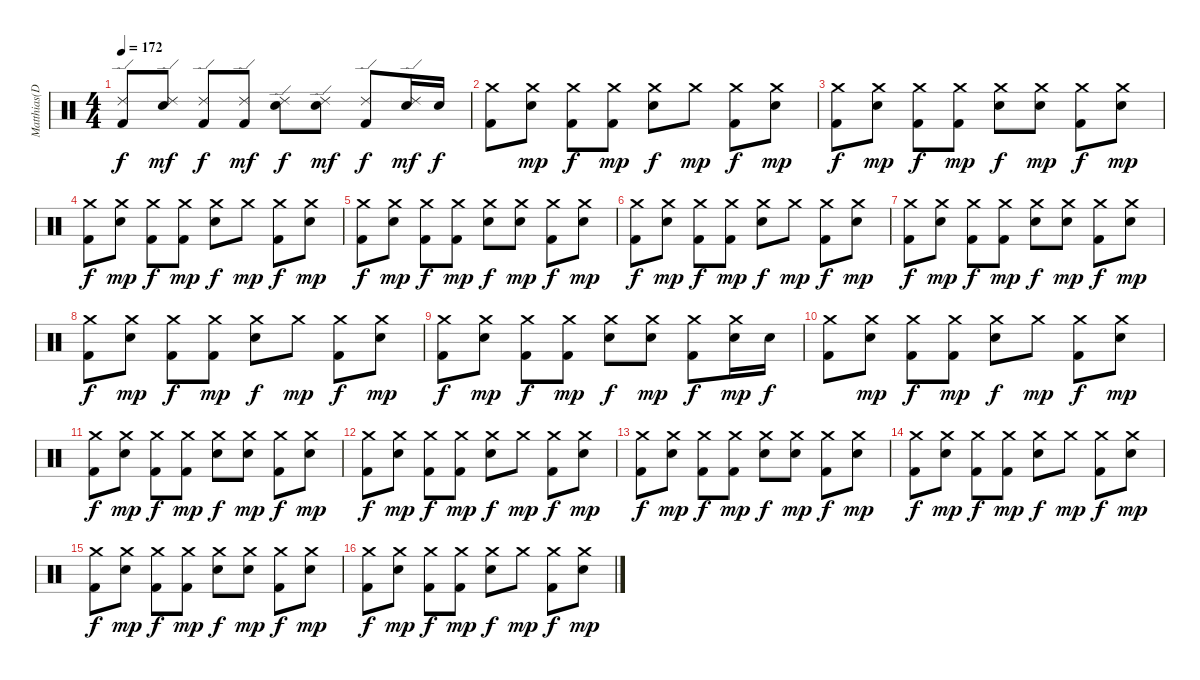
\track ("Matthias(Drums)" "Matthias(D") {instrument percussion}
\staff {score}
\articulation defaults
\ts (4 4)
\tempo 172
\clef neutral
\ks c
("Ride (edge) 2" "Kick (hit) 2").8{dy f} ("Ride (edge) 2" "Snare (hit) 2").8{dy mf} ("Ride (edge) 2" "Kick (hit) 2").8{dy f} ("Ride (edge) 2" "Kick (hit) 2").8{dy mf} ("Ride (edge) 2" "Snare (hit) 2").8{dy f} ("Ride (edge) 2" "Snare (hit) 2").8{dy mf} ("Ride (edge) 2" "Kick (hit) 2").8{dy f} ("Ride (edge) 2" "Snare (hit) 2").16{dy mf} "Snare (hit) 2".16{dy f} |
("Crash medium (hit)" "Kick (hit) 2").8 ("Crash medium (hit)" "Snare (hit) 2").8{dy mp} ("Crash medium (hit)" "Kick (hit) 2").8{dy f} ("Crash medium (hit)" "Kick (hit) 2").8{dy mp} ("Crash medium (hit)" "Snare (hit) 2").8{dy f} "Crash medium (hit)".8{dy mp} ("Crash medium (hit)" "Kick (hit) 2").8{dy f} ("Crash medium (hit)" "Snare (hit) 2").8{dy mp} |
("Crash medium (hit)" "Kick (hit) 2").8{dy f} ("Crash medium (hit)" "Snare (hit) 2").8{dy mp} ("Crash medium (hit)" "Kick (hit) 2").8{dy f} ("Crash medium (hit)" "Kick (hit) 2").8{dy mp} ("Crash medium (hit)" "Snare (hit) 2").8{dy f} ("Crash medium (hit)" "Snare (hit) 2").8{dy mp} ("Crash medium (hit)" "Kick (hit) 2").8{dy f} ("Crash medium (hit)" "Snare (hit) 2").8{dy mp} |
("Crash medium (hit)" "Kick (hit) 2").8{dy f} ("Crash medium (hit)" "Snare (hit) 2").8{dy mp} ("Crash medium (hit)" "Kick (hit) 2").8{dy f} ("Crash medium (hit)" "Kick (hit) 2").8{dy mp} ("Crash medium (hit)" "Snare (hit) 2").8{dy f} "Crash medium (hit)".8{dy mp} ("Crash medium (hit)" "Kick (hit) 2").8{dy f} ("Crash medium (hit)" "Snare (hit) 2").8{dy mp} |
("Crash medium (hit)" "Kick (hit) 2").8{dy f} ("Crash medium (hit)" "Snare (hit) 2").8{dy mp} ("Crash medium (hit)" "Kick (hit) 2").8{dy f} ("Crash medium (hit)" "Kick (hit) 2").8{dy mp} ("Crash medium (hit)" "Snare (hit) 2").8{dy f} ("Crash medium (hit)" "Snare (hit) 2").8{dy mp} ("Crash medium (hit)" "Kick (hit) 2").8{dy f} ("Crash medium (hit)" "Snare (hit) 2").8{dy mp} |
("Crash medium (hit)" "Kick (hit) 2").8{dy f} ("Crash medium (hit)" "Snare (hit) 2").8{dy mp} ("Crash medium (hit)" "Kick (hit) 2").8{dy f} ("Crash medium (hit)" "Kick (hit) 2").8{dy mp} ("Crash medium (hit)" "Snare (hit) 2").8{dy f} "Crash medium (hit)".8{dy mp} ("Crash medium (hit)" "Kick (hit) 2").8{dy f} ("Crash medium (hit)" "Snare (hit) 2").8{dy mp} |
("Crash medium (hit)" "Kick (hit) 2").8{dy f} ("Crash medium (hit)" "Snare (hit) 2").8{dy mp} ("Crash medium (hit)" "Kick (hit) 2").8{dy f} ("Crash medium (hit)" "Kick (hit) 2").8{dy mp} ("Crash medium (hit)" "Snare (hit) 2").8{dy f} ("Crash medium (hit)" "Snare (hit) 2").8{dy mp} ("Crash medium (hit)" "Kick (hit) 2").8{dy f} ("Crash medium (hit)" "Snare (hit) 2").8{dy mp} |
("Crash medium (hit)" "Kick (hit) 2").8{dy f} ("Crash medium (hit)" "Snare (hit) 2").8{dy mp} ("Crash medium (hit)" "Kick (hit) 2").8{dy f} ("Crash medium (hit)" "Kick (hit) 2").8{dy mp} ("Crash medium (hit)" "Snare (hit) 2").8{dy f} "Crash medium (hit)".8{dy mp} ("Crash medium (hit)" "Kick (hit) 2").8{dy f} ("Crash medium (hit)" "Snare (hit) 2").8{dy mp} |
("Crash medium (hit)" "Kick (hit) 2").8{dy f} ("Crash medium (hit)" "Snare (hit) 2").8{dy mp} ("Crash medium (hit)" "Kick (hit) 2").8{dy f} ("Crash medium (hit)" "Kick (hit) 2").8{dy mp} ("Crash medium (hit)" "Snare (hit) 2").8{dy f} ("Crash medium (hit)" "Snare (hit) 2").8{dy mp} ("Crash medium (hit)" "Kick (hit) 2").8{dy f} ("Crash medium (hit)" "Snare (hit) 2").16{dy mp} "Snare (hit) 2".16{dy f} |
("Crash medium (hit)" "Kick (hit) 2").8 ("Crash medium (hit)" "Snare (hit) 2").8{dy mp} ("Crash medium (hit)" "Kick (hit) 2").8{dy f} ("Crash medium (hit)" "Kick (hit) 2").8{dy mp} ("Crash medium (hit)" "Snare (hit) 2").8{dy f} "Crash medium (hit)".8{dy mp} ("Crash medium (hit)" "Kick (hit) 2").8{dy f} ("Crash medium (hit)" "Snare (hit) 2").8{dy mp} |
("Crash medium (hit)" "Kick (hit) 2").8{dy f} ("Crash medium (hit)" "Snare (hit) 2").8{dy mp} ("Crash medium (hit)" "Kick (hit) 2").8{dy f} ("Crash medium (hit)" "Kick (hit) 2").8{dy mp} ("Crash medium (hit)" "Snare (hit) 2").8{dy f} ("Crash medium (hit)" "Snare (hit) 2").8{dy mp} ("Crash medium (hit)" "Kick (hit) 2").8{dy f} ("Crash medium (hit)" "Snare (hit) 2").8{dy mp} |
("Crash medium (hit)" "Kick (hit) 2").8{dy f} ("Crash medium (hit)" "Snare (hit) 2").8{dy mp} ("Crash medium (hit)" "Kick (hit) 2").8{dy f} ("Crash medium (hit)" "Kick (hit) 2").8{dy mp} ("Crash medium (hit)" "Snare (hit) 2").8{dy f} "Crash medium (hit)".8{dy mp} ("Crash medium (hit)" "Kick (hit) 2").8{dy f} ("Crash medium (hit)" "Snare (hit) 2").8{dy mp} |
("Crash medium (hit)" "Kick (hit) 2").8{dy f} ("Crash medium (hit)" "Snare (hit) 2").8{dy mp} ("Crash medium (hit)" "Kick (hit) 2").8{dy f} ("Crash medium (hit)" "Kick (hit) 2").8{dy mp} ("Crash medium (hit)" "Snare (hit) 2").8{dy f} ("Crash medium (hit)" "Snare (hit) 2").8{dy mp} ("Crash medium (hit)" "Kick (hit) 2").8{dy f} ("Crash medium (hit)" "Snare (hit) 2").8{dy mp} |
("Crash medium (hit)" "Kick (hit) 2").8{dy f} ("Crash medium (hit)" "Snare (hit) 2").8{dy mp} ("Crash medium (hit)" "Kick (hit) 2").8{dy f} ("Crash medium (hit)" "Kick (hit) 2").8{dy mp} ("Crash medium (hit)" "Snare (hit) 2").8{dy f} "Crash medium (hit)".8{dy mp} ("Crash medium (hit)" "Kick (hit) 2").8{dy f} ("Crash medium (hit)" "Snare (hit) 2").8{dy mp} |
("Crash medium (hit)" "Kick (hit) 2").8{dy f} ("Crash medium (hit)" "Snare (hit) 2").8{dy mp} ("Crash medium (hit)" "Kick (hit) 2").8{dy f} ("Crash medium (hit)" "Kick (hit) 2").8{dy mp} ("Crash medium (hit)" "Snare (hit) 2").8{dy f} ("Crash medium (hit)" "Snare (hit) 2").8{dy mp} ("Crash medium (hit)" "Kick (hit) 2").8{dy f} ("Crash medium (hit)" "Snare (hit) 2").8{dy mp} |
("Crash medium (hit)" "Kick (hit) 2").8{dy f} ("Crash medium (hit)" "Snare (hit) 2").8{dy mp} ("Crash medium (hit)" "Kick (hit) 2").8{dy f} ("Crash medium (hit)" "Kick (hit) 2").8{dy mp} ("Crash medium (hit)" "Snare (hit) 2").8{dy f} "Crash medium (hit)".8{dy mp} ("Crash medium (hit)" "Kick (hit) 2").8{dy f} ("Crash medium (hit)" "Snare (hit) 2").8{dy mp}
